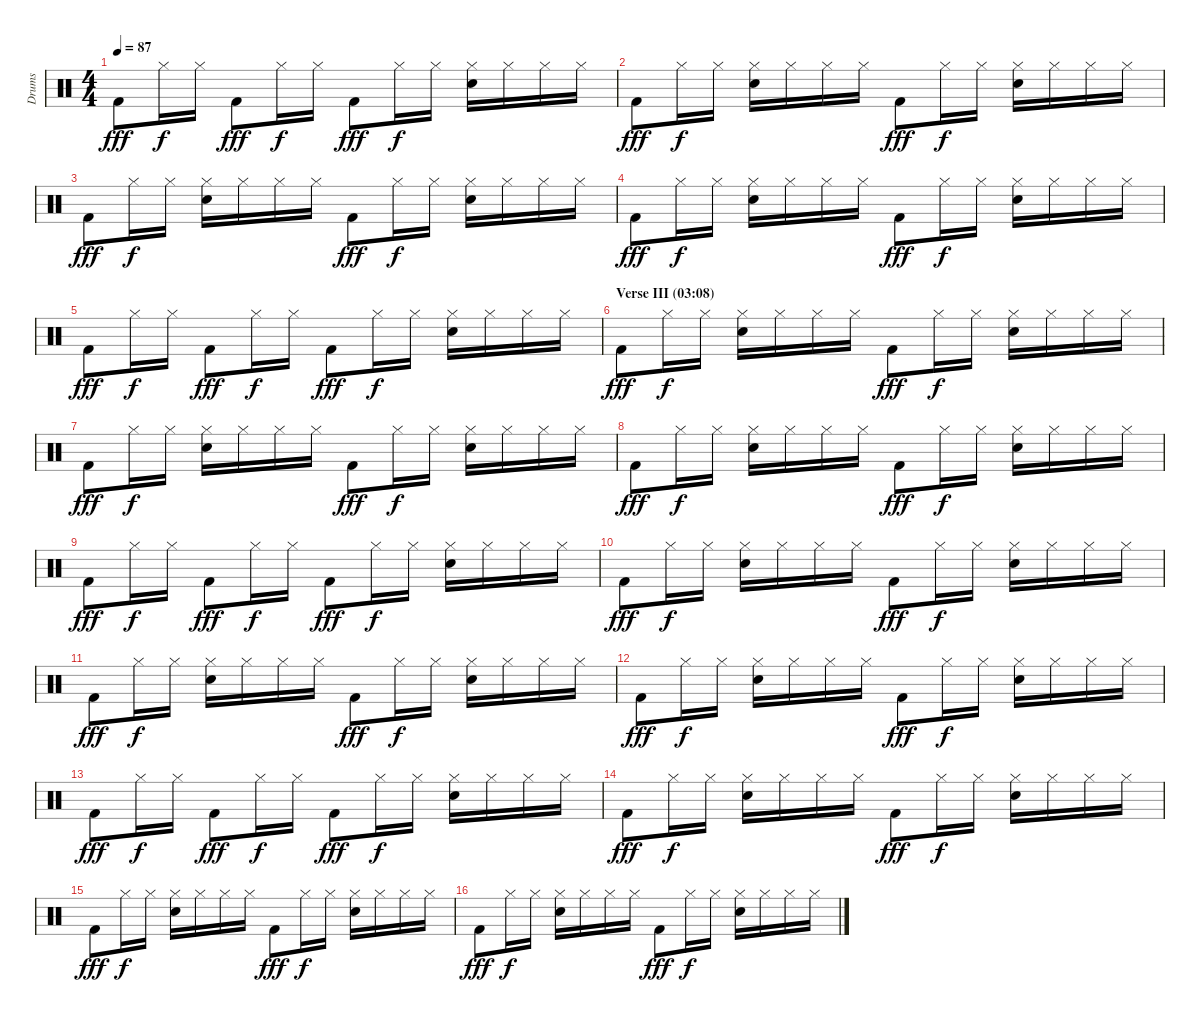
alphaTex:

\track ("Drums" "Drums") {instrument percussion}
\staff {score}
\articulation defaults
\ts (4 4)
\tempo 87
\clef neutral
\ks c "Kick (hit) 2".8{dy fff} "Hi-Hat (closed)".16{dy f} "Hi-Hat (closed)".16 "Kick (hit) 2".8{dy fff} "Hi-Hat (closed)".16{dy f} "Hi-Hat (closed)".16 "Kick (hit) 2".8{dy fff} "Hi-Hat (closed)".16{dy f} "Hi-Hat (closed)".16
("Hi-Hat (closed)" "Electric Snare (hit)").16 "Hi-Hat (closed)".16 "Hi-Hat (closed)".16 "Hi-Hat (closed)".16 |
"Kick (hit) 2".8{dy fff} "Hi-Hat (closed)".16{dy f} "Hi-Hat (closed)".16 ("Hi-Hat (closed)" "Electric Snare (hit)").16 "Hi-Hat (closed)".16 "Hi-Hat (closed)".16 "Hi-Hat (closed)".16 "Kick (hit) 2".8{dy fff} "Hi-Hat (closed)".16{dy f} "Hi-Hat (closed)".16 ("Hi-Hat (closed)" "Electric Snare (hit)").16 "Hi-Hat (closed)".16 "Hi-Hat (closed)".16 "Hi-Hat (closed)".16 |
"Kick (hit) 2".8{dy fff} "Hi-Hat (closed)".16{dy f} "Hi-Hat (closed)".16 ("Hi-Hat (closed)" "Electric Snare (hit)").16 "Hi-Hat (closed)".16 "Hi-Hat (closed)".16 "Hi-Hat (closed)".16 "Kick (hit) 2".8{dy fff} "Hi-Hat (closed)".16{dy f} "Hi-Hat (closed)".16 ("Hi-Hat (closed)" "Electric Snare (hit)").16 "Hi-Hat (closed)".16 "Hi-Hat (closed)".16 "Hi-Hat (closed)".16 |
"Kick (hit) 2".8{dy fff} "Hi-Hat (closed)".16{dy f} "Hi-Hat (closed)".16 ("Hi-Hat (closed)" "Electric Snare (hit)").16 "Hi-Hat (closed)".16 "Hi-Hat (closed)".16 "Hi-Hat (closed)".16 "Kick (hit) 2".8{dy fff} "Hi-Hat (closed)".16{dy f} "Hi-Hat (closed)".16 ("Hi-Hat (closed)" "Electric Snare (hit)").16 "Hi-Hat (closed)".16 "Hi-Hat (closed)".16 "Hi-Hat (closed)".16 |
"Kick (hit) 2".8{dy fff} "Hi-Hat (closed)".16{dy f} "Hi-Hat (closed)".16 "Kick (hit) 2".8{dy fff} "Hi-Hat (closed)".16{dy f} "Hi-Hat (closed)".16 "Kick (hit) 2".8{dy fff} "Hi-Hat (closed)".16{dy f} "Hi-Hat (closed)".16 ("Hi-Hat (closed)" "Electric Snare (hit)").16 "Hi-Hat (closed)".16 "Hi-Hat (closed)".16 "Hi-Hat (closed)".16 |
\section ("" "Verse III (03:08)")
"Kick (hit) 2".8{dy fff} "Hi-Hat (closed)".16{dy f} "Hi-Hat (closed)".16 ("Hi-Hat (closed)" "Electric Snare (hit)").16 "Hi-Hat (closed)".16 "Hi-Hat (closed)".16 "Hi-Hat (closed)".16 "Kick (hit) 2".8{dy fff} "Hi-Hat (closed)".16{dy f} "Hi-Hat (closed)".16 ("Hi-Hat (closed)" "Electric Snare (hit)").16 "Hi-Hat (closed)".16 "Hi-Hat (closed)".16 "Hi-Hat (closed)".16 |
"Kick (hit) 2".8{dy fff} "Hi-Hat (closed)".16{dy f} "Hi-Hat (closed)".16 ("Hi-Hat (closed)" "Electric Snare (hit)").16 "Hi-Hat (closed)".16 "Hi-Hat (closed)".16 "Hi-Hat (closed)".16 "Kick (hit) 2".8{dy fff} "Hi-Hat (closed)".16{dy f} "Hi-Hat (closed)".16 ("Hi-Hat (closed)" "Electric Snare (hit)").16 "Hi-Hat (closed)".16 "Hi-Hat (closed)".16 "Hi-Hat (closed)".16 |
"Kick (hit) 2".8{dy fff} "Hi-Hat (closed)".16{dy f} "Hi-Hat (closed)".16 ("Hi-Hat (closed)" "Electric Snare (hit)").16 "Hi-Hat (closed)".16 "Hi-Hat (closed)".16 "Hi-Hat (closed)".16 "Kick (hit) 2".8{dy fff} "Hi-Hat (closed)".16{dy f} "Hi-Hat (closed)".16 ("Hi-Hat (closed)" "Electric Snare (hit)").16 "Hi-Hat (closed)".16 "Hi-Hat (closed)".16 "Hi-Hat (closed)".16 |
"Kick (hit) 2".8{dy fff} "Hi-Hat (closed)".16{dy f} "Hi-Hat (closed)".16 "Kick (hit) 2".8{dy fff} "Hi-Hat (closed)".16{dy f} "Hi-Hat (closed)".16 "Kick (hit) 2".8{dy fff} "Hi-Hat (closed)".16{dy f} "Hi-Hat (closed)".16 ("Hi-Hat (closed)" "Electric Snare (hit)").16 "Hi-Hat (closed)".16 "Hi-Hat (closed)".16 "Hi-Hat (closed)".16 |
"Kick (hit) 2".8{dy fff} "Hi-Hat (closed)".16{dy f} "Hi-Hat (closed)".16 ("Hi-Hat (closed)" "Electric Snare (hit)").16 "Hi-Hat (closed)".16 "Hi-Hat (closed)".16 "Hi-Hat (closed)".16 "Kick (hit) 2".8{dy fff} "Hi-Hat (closed)".16{dy f} "Hi-Hat (closed)".16 ("Hi-Hat (closed)" "Electric Snare (hit)").16 "Hi-Hat (closed)".16 "Hi-Hat (closed)".16 "Hi-Hat (closed)".16 |
"Kick (hit) 2".8{dy fff} "Hi-Hat (closed)".16{dy f} "Hi-Hat (closed)".16 ("Hi-Hat (closed)" "Electric Snare (hit)").16 "Hi-Hat (closed)".16 "Hi-Hat (closed)".16 "Hi-Hat (closed)".16 "Kick (hit) 2".8{dy fff} "Hi-Hat (closed)".16{dy f} "Hi-Hat (closed)".16 ("Hi-Hat (closed)" "Electric Snare (hit)").16 "Hi-Hat (closed)".16 "Hi-Hat (closed)".16 "Hi-Hat (closed)".16 |
"Kick (hit) 2".8{dy fff} "Hi-Hat (closed)".16{dy f} "Hi-Hat (closed)".16 ("Hi-Hat (closed)" "Electric Snare (hit)").16 "Hi-Hat (closed)".16 "Hi-Hat (closed)".16 "Hi-Hat (closed)".16 "Kick (hit) 2".8{dy fff} "Hi-Hat (closed)".16{dy f} "Hi-Hat (closed)".16 ("Hi-Hat (closed)" "Electric Snare (hit)").16 "Hi-Hat (closed)".16 "Hi-Hat (closed)".16 "Hi-Hat (closed)".16 |
"Kick (hit) 2".8{dy fff} "Hi-Hat (closed)".16{dy f} "Hi-Hat (closed)".16 "Kick (hit) 2".8{dy fff} "Hi-Hat (closed)".16{dy f} "Hi-Hat (closed)".16 "Kick (hit) 2".8{dy fff} "Hi-Hat (closed)".16{dy f} "Hi-Hat (closed)".16 ("Hi-Hat (closed)" "Electric Snare (hit)").16 "Hi-Hat (closed)".16 "Hi-Hat (closed)".16 "Hi-Hat (closed)".16 |
"Kick (hit) 2".8{dy fff} "Hi-Hat (closed)".16{dy f} "Hi-Hat (closed)".16 ("Hi-Hat (closed)" "Electric Snare (hit)").16 "Hi-Hat (closed)".16 "Hi-Hat (closed)".16 "Hi-Hat (closed)".16 "Kick (hit) 2".8{dy fff} "Hi-Hat (closed)".16{dy f} "Hi-Hat (closed)".16 ("Hi-Hat (closed)" "Electric Snare (hit)").16 "Hi-Hat (closed)".16 "Hi-Hat (closed)".16 "Hi-Hat (closed)".16 |
"Kick (hit) 2".8{dy fff} "Hi-Hat (closed)".16{dy f} "Hi-Hat (closed)".16 ("Hi-Hat (closed)" "Electric Snare (hit)").16 "Hi-Hat (closed)".16 "Hi-Hat (closed)".16 "Hi-Hat (closed)".16 "Kick (hit) 2".8{dy fff} "Hi-Hat (closed)".16{dy f} "Hi-Hat (closed)".16 ("Hi-Hat (closed)" "Electric Snare (hit)").16 "Hi-Hat (closed)".16 "Hi-Hat (closed)".16 "Hi-Hat (closed)".16 |
"Kick (hit) 2".8{dy fff} "Hi-Hat (closed)".16{dy f} "Hi-Hat (closed)".16 ("Hi-Hat (closed)" "Electric Snare (hit)").16 "Hi-Hat (closed)".16 "Hi-Hat (closed)".16 "Hi-Hat (closed)".16 "Kick (hit) 2".8{dy fff} "Hi-Hat (closed)".16{dy f} "Hi-Hat (closed)".16 ("Hi-Hat (closed)" "Electric Snare (hit)").16 "Hi-Hat (closed)".16 "Hi-Hat (closed)".16 "Hi-Hat (closed)".16
